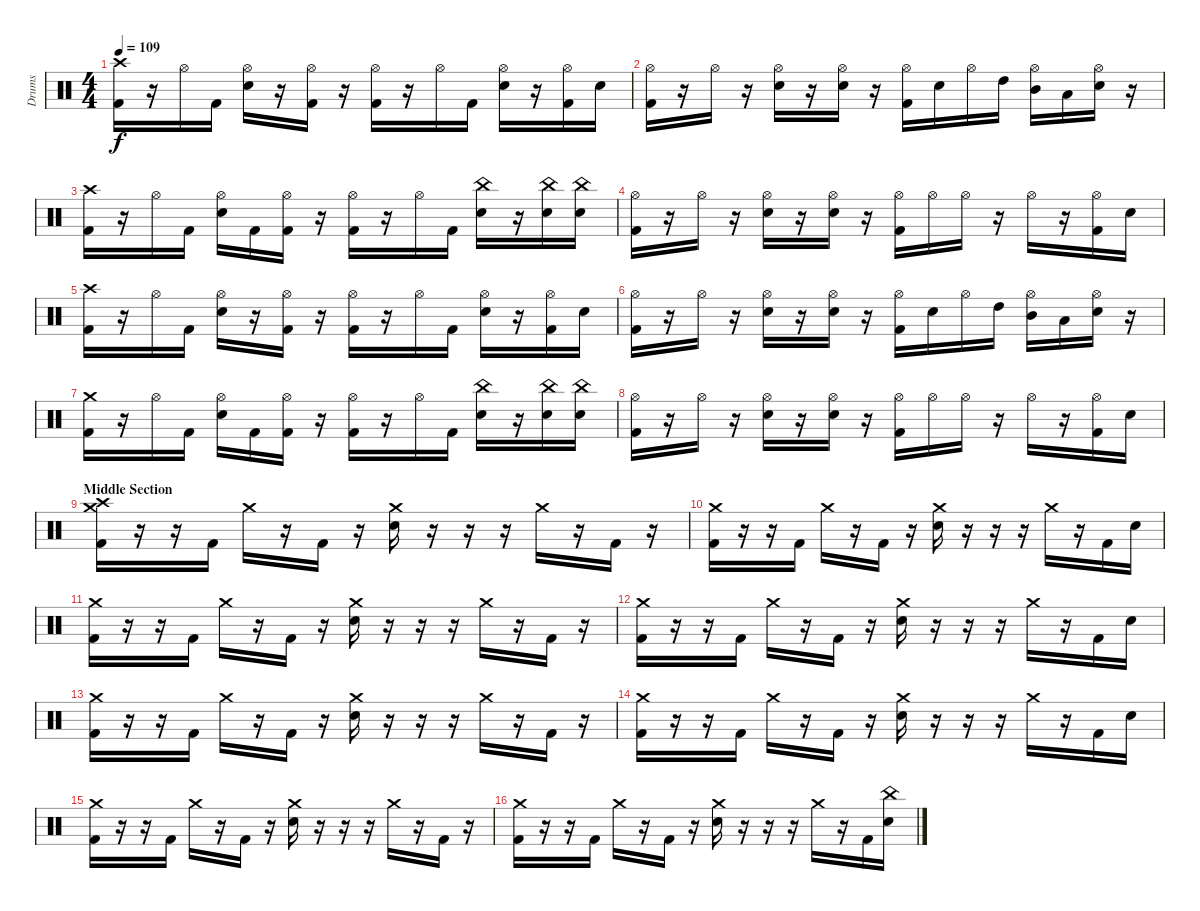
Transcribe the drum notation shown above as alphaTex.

\track ("Drums" "Drums") {instrument percussion}
\staff {score}
\articulation defaults
\ts (4 4)
\tempo 109
\clef neutral
\ks c
("Crash high (hit)" "Kick (hit) 2").16{dy f} r.16 "Hi-Hat (open)".16 "Kick (hit) 2".16 ("Hi-Hat (open)" "Snare (hit) 2").16 r.16 ("Hi-Hat (open)" "Kick (hit) 2").16 r.16 ("Hi-Hat (open)" "Kick (hit) 2").16 r.16 "Hi-Hat (open)".16 "Kick (hit) 2".16 ("Hi-Hat (open)" "Snare (hit) 2").16 r.16 ("Hi-Hat (open)" "Kick (hit) 2").16 "Snare (hit) 2".16 |
("Hi-Hat (open)" "Kick (hit) 2").16 r.16 "Hi-Hat (open)".16 r.16 ("Hi-Hat (open)" "Snare (hit) 2").16 r.16 ("Hi-Hat (open)" "Snare (hit) 2").16 r.16 ("Hi-Hat (open)" "Kick (hit) 2").16 "Snare (hit) 2".16 "Hi-Hat (open)".16 "High Tom (hit)".16 ("Hi-Hat (open)" "Mid Tom (hit)").16 "Low Tom (hit)".16 ("Hi-Hat (open)" "Snare (hit) 2").16 r.16 |
("Crash high (hit)" "Kick (hit) 2").16 r.16 "Hi-Hat (open)".16 "Kick (hit) 2".16 ("Hi-Hat (open)" "Snare (hit) 2").16 "Kick (hit) 2".16 ("Hi-Hat (open)" "Kick (hit) 2").16 r.16 ("Hi-Hat (open)" "Kick (hit) 2").16 r.16 "Hi-Hat (open)".16 "Kick (hit) 2".16 ("China (hit)" "Snare (hit) 2").16 r.16 ("China (hit)" "Snare (hit) 2").16 ("China (hit)" "Snare (hit) 2").16 |
("Hi-Hat (open)" "Kick (hit) 2").16 r.16 "Hi-Hat (open)".16 r.16 ("Hi-Hat (open)" "Snare (hit) 2").16 r.16 ("Hi-Hat (open)" "Snare (hit) 2").16 r.16 ("Hi-Hat (open)" "Kick (hit) 2").16 "Hi-Hat (open)".16 "Hi-Hat (open)".16 r.16 "Hi-Hat (open)".16 r.16 ("Hi-Hat (open)" "Kick (hit) 2").16 "Snare (hit) 2".16 |
("Crash high (hit)" "Kick (hit) 2").16 r.16 "Hi-Hat (open)".16 "Kick (hit) 2".16 ("Hi-Hat (open)" "Snare (hit) 2").16 r.16 ("Hi-Hat (open)" "Kick (hit) 2").16 r.16 ("Hi-Hat (open)" "Kick (hit) 2").16 r.16 "Hi-Hat (open)".16 "Kick (hit) 2".16 ("Hi-Hat (open)" "Snare (hit) 2").16 r.16 ("Hi-Hat (open)" "Kick (hit) 2").16 "Snare (hit) 2".16 |
("Hi-Hat (open)" "Kick (hit) 2").16 r.16 "Hi-Hat (open)".16 r.16 ("Hi-Hat (open)" "Snare (hit) 2").16 r.16 ("Hi-Hat (open)" "Snare (hit) 2").16 r.16 ("Hi-Hat (open)" "Kick (hit) 2").16 "Snare (hit) 2".16 "Hi-Hat (open)".16 "High Tom (hit)".16 ("Hi-Hat (open)" "Mid Tom (hit)").16 "Low Tom (hit)".16 ("Hi-Hat (open)" "Snare (hit) 2").16 r.16 |
("Crash medium (hit)" "Kick (hit) 2").16 r.16 "Hi-Hat (open)".16 "Kick (hit) 2".16 ("Hi-Hat (open)" "Snare (hit) 2").16 "Kick (hit) 2".16 ("Hi-Hat (open)" "Kick (hit) 2").16 r.16 ("Hi-Hat (open)" "Kick (hit) 2").16 r.16 "Hi-Hat (open)".16 "Kick (hit) 2".16 ("China (hit)" "Snare (hit) 2").16 r.16 ("China (hit)" "Snare (hit) 2").16 ("China (hit)" "Snare (hit) 2").16 |
("Hi-Hat (open)" "Kick (hit) 2").16 r.16 "Hi-Hat (open)".16 r.16 ("Hi-Hat (open)" "Snare (hit) 2").16 r.16 ("Hi-Hat (open)" "Snare (hit) 2").16 r.16 ("Hi-Hat (open)" "Kick (hit) 2").16 "Hi-Hat (open)".16 "Hi-Hat (open)".16 r.16 "Hi-Hat (open)".16 r.16 ("Hi-Hat (open)" "Kick (hit) 2").16 "Snare (hit) 2".16 |
\section ("" "Middle Section")
("Crash medium (hit)" "Crash high (hit)" "Kick (hit) 2").16 r.16 r.16 "Kick (hit) 2".16 "Crash medium (hit)".16 r.16 "Kick (hit) 2".16 r.16 ("Crash medium (hit)" "Snare (hit) 2").16 r.16 r.16 r.16 "Crash medium (hit)".16 r.16 "Kick (hit) 2".16 r.16 |
("Crash medium (hit)" "Kick (hit) 2").16 r.16 r.16 "Kick (hit) 2".16 "Crash medium (hit)".16 r.16 "Kick (hit) 2".16 r.16 ("Crash medium (hit)" "Snare (hit) 2").16 r.16 r.16 r.16 "Crash medium (hit)".16 r.16 "Kick (hit) 2".16 "Snare (hit) 2".16 |
("Crash medium (hit)" "Kick (hit) 2").16 r.16 r.16 "Kick (hit) 2".16 "Crash medium (hit)".16 r.16 "Kick (hit) 2".16 r.16 ("Crash medium (hit)" "Snare (hit) 2").16 r.16 r.16 r.16 "Crash medium (hit)".16 r.16 "Kick (hit) 2".16 r.16 |
("Crash medium (hit)" "Kick (hit) 2").16 r.16 r.16 "Kick (hit) 2".16 "Crash medium (hit)".16 r.16 "Kick (hit) 2".16 r.16 ("Crash medium (hit)" "Snare (hit) 2").16 r.16 r.16 r.16 "Crash medium (hit)".16 r.16 "Kick (hit) 2".16 "Snare (hit) 2".16 |
("Crash medium (hit)" "Kick (hit) 2").16 r.16 r.16 "Kick (hit) 2".16 "Crash medium (hit)".16 r.16 "Kick (hit) 2".16 r.16 ("Crash medium (hit)" "Snare (hit) 2").16 r.16 r.16 r.16 "Crash medium (hit)".16 r.16 "Kick (hit) 2".16 r.16 |
("Crash medium (hit)" "Kick (hit) 2").16 r.16 r.16 "Kick (hit) 2".16 "Crash medium (hit)".16 r.16 "Kick (hit) 2".16 r.16 ("Crash medium (hit)" "Snare (hit) 2").16 r.16 r.16 r.16 "Crash medium (hit)".16 r.16 "Kick (hit) 2".16 "Snare (hit) 2".16 |
("Crash medium (hit)" "Kick (hit) 2").16 r.16 r.16 "Kick (hit) 2".16 "Crash medium (hit)".16 r.16 "Kick (hit) 2".16 r.16 ("Crash medium (hit)" "Snare (hit) 2").16 r.16 r.16 r.16 "Crash medium (hit)".16 r.16 "Kick (hit) 2".16 r.16 |
("Crash medium (hit)" "Kick (hit) 2").16 r.16 r.16 "Kick (hit) 2".16 "Crash medium (hit)".16 r.16 "Kick (hit) 2".16 r.16 ("Crash medium (hit)" "Snare (hit) 2").16 r.16 r.16 r.16 "Crash medium (hit)".16 r.16 "Kick (hit) 2".16 ("China (hit)" "Snare (hit) 2").16
